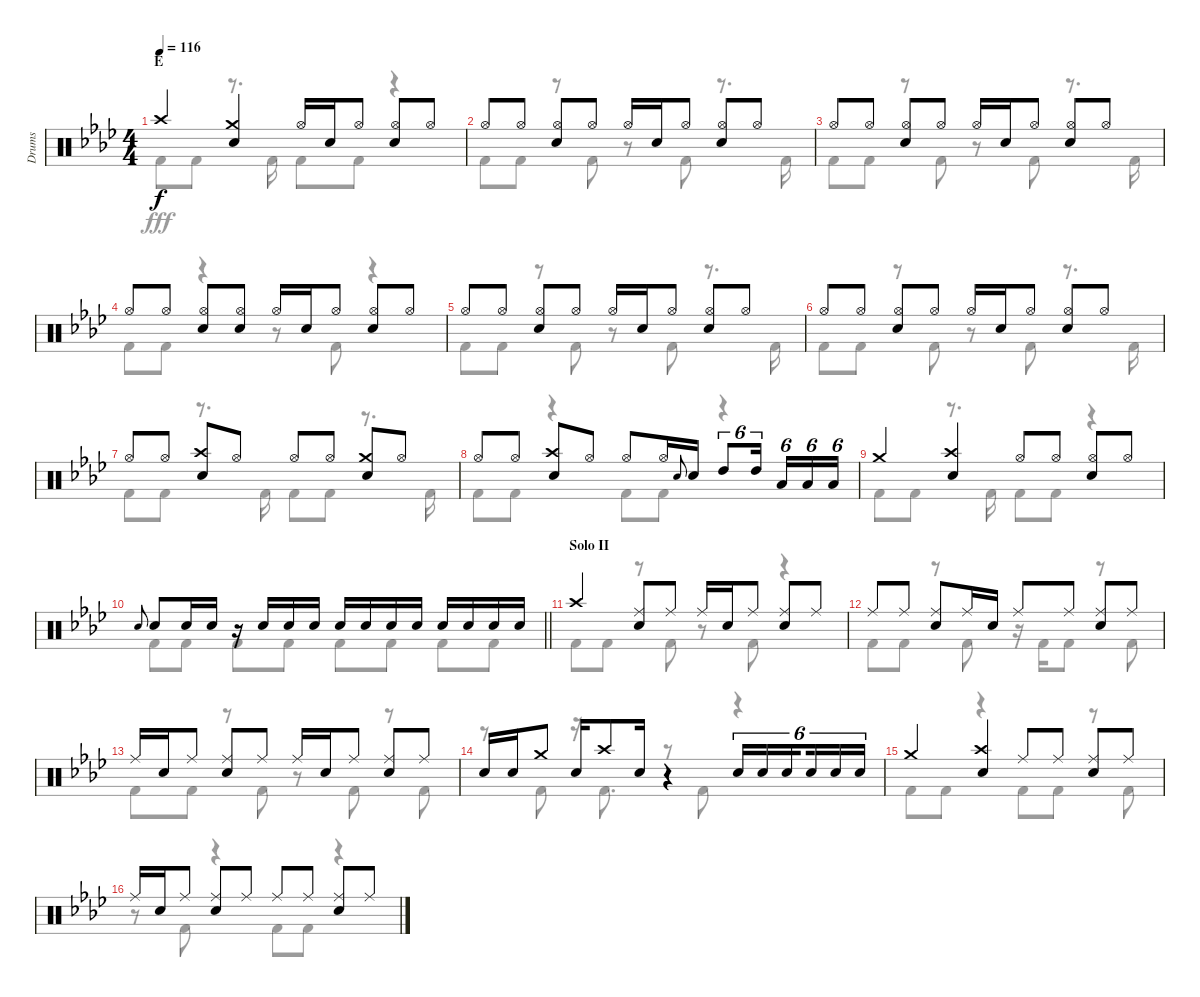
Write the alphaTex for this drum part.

\track ("Drums" "Drums") {instrument percussion}
\staff {score}
\articulation defaults
\voice
\ts (4 4)
\section ("" "E")
\tempo 116
\clef neutral
\ks ab "Crash high (hit)".4{dy f}
("Crash medium (hit)" "Snare (hit) 2").4 "Hi-Hat (open)".16 "Snare (hit) 2".16 "Hi-Hat (open)".8 ("Hi-Hat (open)" "Snare (hit) 2").8 "Hi-Hat (open)".8 |
"Hi-Hat (open)".8 "Hi-Hat (open)".8 ("Hi-Hat (open)" "Snare (hit) 2").8 "Hi-Hat (open)".8 "Hi-Hat (open)".16 "Snare (hit) 2".16 "Hi-Hat (open)".8 ("Hi-Hat (open)" "Snare (hit) 2").8 "Hi-Hat (open)".8 |
"Hi-Hat (open)".8 "Hi-Hat (open)".8 ("Hi-Hat (open)" "Snare (hit) 2").8 "Hi-Hat (open)".8 "Hi-Hat (open)".16 "Snare (hit) 2".16 "Hi-Hat (open)".8 ("Hi-Hat (open)" "Snare (hit) 2").8 "Hi-Hat (open)".8 |
"Hi-Hat (open)".8 "Hi-Hat (open)".8 ("Hi-Hat (open)" "Snare (hit) 2").8 ("Hi-Hat (open)" "Snare (hit) 2").8 "Hi-Hat (open)".16 "Snare (hit) 2".16 "Hi-Hat (open)".8 ("Hi-Hat (open)" "Snare (hit) 2").8 "Hi-Hat (open)".8 |
"Hi-Hat (open)".8 "Hi-Hat (open)".8 ("Hi-Hat (open)" "Snare (hit) 2").8 "Hi-Hat (open)".8 "Hi-Hat (open)".16 "Snare (hit) 2".16 "Hi-Hat (open)".8 ("Hi-Hat (open)" "Snare (hit) 2").8 "Hi-Hat (open)".8 |
"Hi-Hat (open)".8 "Hi-Hat (open)".8 ("Hi-Hat (open)" "Snare (hit) 2").8 "Hi-Hat (open)".8 "Hi-Hat (open)".16 "Snare (hit) 2".16 "Hi-Hat (open)".8 ("Hi-Hat (open)" "Snare (hit) 2").8 "Hi-Hat (open)".8 |
"Hi-Hat (open)".8 "Hi-Hat (open)".8 ("Crash high (hit)" "Snare (hit) 2").8 "Hi-Hat (open)".8 "Hi-Hat (open)".8 "Hi-Hat (open)".8 ("Crash medium (hit)" "Snare (hit) 2").8 "Hi-Hat (open)".8 |
"Hi-Hat (open)".8 "Hi-Hat (open)".8 ("Crash high (hit)" "Snare (hit) 2").8 "Hi-Hat (open)".8 "Hi-Hat (open)".8 "Hi-Hat (open)".16 "Snare (hit) 2".8{gr onbeat} "Snare (hit) 2".16 "High Tom (hit)".8{tu (6 4)} "High Tom (hit)".16{tu (6 4) beam splitsecondary} "Low Tom (hit)".16{tu (6 4)} "Low Tom (hit)".16{tu (6 4)} "Low Tom (hit)".16{tu (6 4)} |
"Crash medium (hit)".4 ("Crash high (hit)" "Snare (hit) 2").4 "Hi-Hat (open)".8 "Hi-Hat (open)".8 ("Hi-Hat (open)" "Snare (hit) 2").8 "Hi-Hat (open)".8 |
\barLineRight lightlight "Snare (hit) 2".8{gr onbeat} "Snare (hit) 2".8 "Snare (hit) 2".16 "Snare (hit) 2".16
r.16 "Snare (hit) 2".16 "Snare (hit) 2".16 "Snare (hit) 2".16 "Snare (hit) 2".16 "Snare (hit) 2".16 "Snare (hit) 2".16 "Snare (hit) 2".16 "Snare (hit) 2".16 "Snare (hit) 2".16 "Snare (hit) 2".16 "Snare (hit) 2".16 |
\section ("" "Solo II")
"Crash high (hit)".4 ("Ride (middle)" "Snare (hit) 2").8 "Ride (middle)".8 "Ride (middle)".16 "Snare (hit) 2".16 "Ride (middle)".8 ("Ride (middle)" "Snare (hit) 2").8 "Ride (middle)".8 |
"Ride (middle)".8 "Ride (middle)".8 ("Ride (middle)" "Snare (hit) 2").8 "Ride (middle)".16 "Snare (hit) 2".16 "Ride (middle)".8 "Ride (middle)".8 ("Ride (middle)" "Snare (hit) 2").8 "Ride (middle)".8 |
"Ride (middle)".16 "Snare (hit) 2".16 "Ride (middle)".8 ("Ride (middle)" "Snare (hit) 2").8 "Ride (middle)".8 "Ride (middle)".16 "Snare (hit) 2".16 "Ride (middle)".8 ("Ride (middle)" "Snare (hit) 2").8 "Ride (middle)".8 |
"Snare (hit) 2".16 "Snare (hit) 2".16 "Crash medium (hit)".8 "Snare (hit) 2".16 "Crash high (hit)".8 "Snare (hit) 2".16 r.4 "Snare (hit) 2".16{tu (6 4)} "Snare (hit) 2".16{tu (6 4)} "Snare (hit) 2".16{tu (6 4) beam splitsecondary} "Snare (hit) 2".16{tu (6 4)} "Snare (hit) 2".16{tu (6 4)} "Snare (hit) 2".16{tu (6 4)} |
"Crash medium (hit)".4 ("Crash high (hit)" "Snare (hit) 2").4 "Ride (middle)".8 "Ride (middle)".8 ("Ride (middle)" "Snare (hit) 2").8 "Ride (middle)".8 |
"Ride (middle)".16 "Snare (hit) 2".16 "Ride (middle)".8 ("Ride (middle)" "Snare (hit) 2").8 "Ride (middle)".8 "Ride (middle)".8 "Ride (middle)".8 ("Ride (middle)" "Snare (hit) 2").8 "Ride (middle)".8
\voice
\clef neutral
\ottava regular
\simile none
\ks ab "Kick (hit) 2".8{dy fff} "Kick (hit) 2".8
r.8{d} "Kick (hit) 2".16 "Kick (hit) 2".8 "Kick (hit) 2".8 r.4 |
"Kick (hit) 2".8 "Kick (hit) 2".8 r.8 "Kick (hit) 2".8 r.8 "Kick (hit) 2".8 r.8{d} "Kick (hit) 2".16 |
"Kick (hit) 2".8 "Kick (hit) 2".8 r.8 "Kick (hit) 2".8 r.8 "Kick (hit) 2".8 r.8{d} "Kick (hit) 2".16 |
"Kick (hit) 2".8 "Kick (hit) 2".8 r.4 r.8 "Kick (hit) 2".8 r.4 |
"Kick (hit) 2".8 "Kick (hit) 2".8 r.8 "Kick (hit) 2".8 r.8 "Kick (hit) 2".8 r.8{d} "Kick (hit) 2".16 |
"Kick (hit) 2".8 "Kick (hit) 2".8 r.8 "Kick (hit) 2".8 r.8 "Kick (hit) 2".8 r.8{d} "Kick (hit) 2".16 |
"Kick (hit) 2".8 "Kick (hit) 2".8 r.8{d} "Kick (hit) 2".16 "Kick (hit) 2".8 "Kick (hit) 2".8 r.8{d} "Kick (hit) 2".16 |
"Kick (hit) 2".8 "Kick (hit) 2".8 r.4 "Kick (hit) 2".8 "Kick (hit) 2".8 r.4 |
"Kick (hit) 2".8 "Kick (hit) 2".8 r.8{d} "Kick (hit) 2".16 "Kick (hit) 2".8 "Kick (hit) 2".8 r.4 |
\barLineRight lightlight "Kick (hit) 2".8 "Kick (hit) 2".8 "Kick (hit) 2".8 "Kick (hit) 2".8 "Kick (hit) 2".8 "Kick (hit) 2".8 "Kick (hit) 2".8 "Kick (hit) 2".8
|
"Kick (hit) 2".8 "Kick (hit) 2".8 r.8 "Kick (hit) 2".8 r.8 "Kick (hit) 2".8 r.4 |
"Kick (hit) 2".8 "Kick (hit) 2".8 r.8 "Kick (hit) 2".8 r.16 "Kick (hit) 2".16 "Kick (hit) 2".8 r.8 "Kick (hit) 2".8 |
"Kick (hit) 2".8 "Kick (hit) 2".8 r.8 "Kick (hit) 2".8 r.8 "Kick (hit) 2".8 r.8 "Kick (hit) 2".8 |
r.8 "Kick (hit) 2".8 r.16 "Kick (hit) 2".8{d} r.8 "Kick (hit) 2".8 r.4 |
"Kick (hit) 2".8 "Kick (hit) 2".8 r.4 "Kick (hit) 2".8 "Kick (hit) 2".8 r.8 "Kick (hit) 2".8 |
r.8 "Kick (hit) 2".8 r.4 "Kick (hit) 2".8 "Kick (hit) 2".8 r.4
